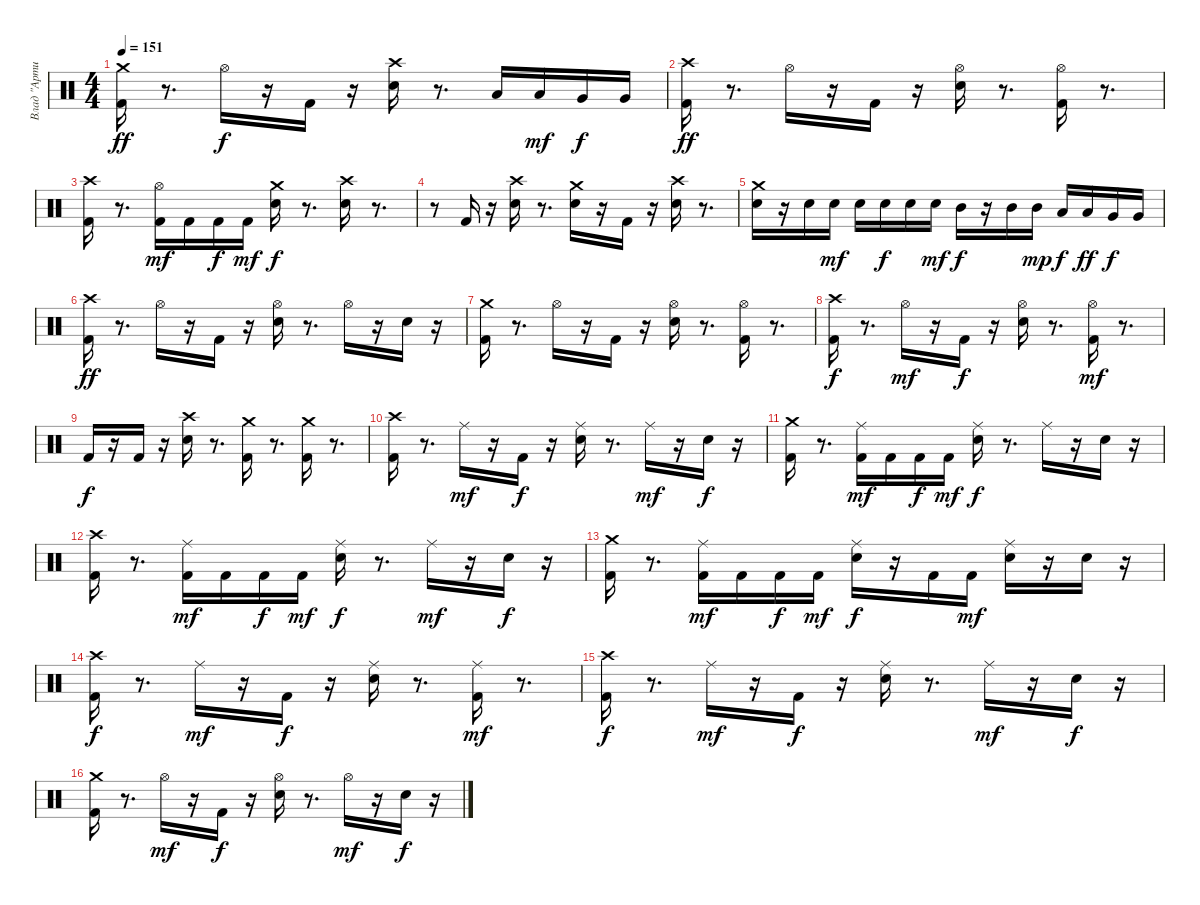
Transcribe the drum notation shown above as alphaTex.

\track ("Влад \"Артист\"" "Влад \"Арти") {instrument percussion}
\staff {score}
\articulation defaults
\ts (4 4)
\tempo 151
\clef neutral
\ks c
("Crash medium (hit)" "Kick (hit) 2").16{dy ff} r.8{d} "Hi-Hat (open)".16{dy f} r.16 "Kick (hit) 2".16 r.16 ("Crash high (hit)" "Snare (hit) 2").16 r.8{d} "Low Tom (hit)".16 "Low Tom (hit)".16{dy mf} "Very Low Tom (hit)".16{dy f} "Very Low Tom (hit)".16 |
("Kick (hit) 2" "Crash high (hit)").16{dy ff} r.8{d} "Hi-Hat (open)".16 r.16 "Kick (hit) 2".16 r.16 ("Snare (hit) 2" "Hi-Hat (open)").16 r.8{d} ("Hi-Hat (open)" "Kick (hit) 2").16 r.8{d} |
("Kick (hit) 2" "Crash high (hit)").16 r.8{d} ("Hi-Hat (open)" "Kick (hit) 2").16{dy mf} "Kick (hit) 2".16 "Kick (hit) 2".16{dy f} "Kick (hit) 2".16{dy mf} ("Crash medium (hit)" "Snare (hit) 2").16{dy f} r.8{d} ("Crash high (hit)" "Snare (hit) 2").16 r.8{d} |
r.8 "Kick (hit) 2".16 r.16 ("Crash high (hit)" "Snare (hit) 2").16 r.8{d} ("Snare (hit) 2" "Crash medium (hit)").16 r.16 "Kick (hit) 2".16 r.16 ("Snare (hit) 2" "Crash high (hit)").16 r.8{d} |
("Crash medium (hit)" "Snare (hit) 2").16 r.16 "Snare (hit) 2".16 "Snare (hit) 2".16{dy mf} "Snare (hit) 2".16 "Snare (hit) 2".16{dy f} "Snare (hit) 2".16 "Snare (hit) 2".16{dy mf} "Mid Tom (hit)".16{dy f} r.16 "Mid Tom (hit)".16 "Mid Tom (hit)".16{dy mp} "Low Tom (hit)".16{dy f} "Low Tom (hit)".16{dy ff} "Very Low Tom (hit)".16{dy f} "Very Low Tom (hit)".16 |
("Kick (hit) 2" "Crash high (hit)").16{dy ff} r.8{d} "Hi-Hat (open)".16 r.16 "Kick (hit) 2".16 r.16 ("Snare (hit) 2" "Hi-Hat (open)").16 r.8{d} "Hi-Hat (open)".16 r.16 "Snare (hit) 2".16 r.16 |
("Kick (hit) 2" "Crash medium (hit)").16 r.8{d} "Hi-Hat (open)".16 r.16 "Kick (hit) 2".16 r.16 ("Snare (hit) 2" "Hi-Hat (open)").16 r.8{d} ("Hi-Hat (open)" "Kick (hit) 2").16 r.8{d} |
("Crash high (hit)" "Kick (hit) 2").16{dy f} r.8{d} "Hi-Hat (open)".16{dy mf} r.16 "Kick (hit) 2".16{dy f} r.16 ("Hi-Hat (open)" "Snare (hit) 2").16 r.8{d} ("Hi-Hat (open)" "Kick (hit) 2").16{dy mf} r.8{d} |
"Kick (hit) 2".16{dy f} r.16 "Kick (hit) 2".16 r.16 ("Crash high (hit)" "Snare (hit) 2").16 r.8{d} ("Crash medium (hit)" "Kick (hit) 2").16 r.8{d} ("Crash medium (hit)" "Kick (hit) 2").16 r.8{d} |
("Crash high (hit)" "Kick (hit) 2").16 r.8{d} "Ride (middle)".16{dy mf} r.16 "Kick (hit) 2".16{dy f} r.16 ("Snare (hit) 2" "Ride (middle)").16 r.8{d} "Ride (middle)".16{dy mf} r.16 "Snare (hit) 2".16{dy f} r.16 |
("Kick (hit) 2" "Crash medium (hit)").16 r.8{d} ("Ride (middle)" "Kick (hit) 2").16{dy mf} "Kick (hit) 2".16 "Kick (hit) 2".16{dy f} "Kick (hit) 2".16{dy mf} ("Ride (middle)" "Snare (hit) 2").16{dy f} r.8{d} "Ride (middle)".16 r.16 "Snare (hit) 2".16 r.16 |
("Crash high (hit)" "Kick (hit) 2").16 r.8{d} ("Ride (middle)" "Kick (hit) 2").16{dy mf} "Kick (hit) 2".16 "Kick (hit) 2".16{dy f} "Kick (hit) 2".16{dy mf} ("Ride (middle)" "Snare (hit) 2").16{dy f} r.8{d} "Ride (middle)".16{dy mf} r.16 "Snare (hit) 2".16{dy f} r.16 |
("Kick (hit) 2" "Crash medium (hit)").16 r.8{d} ("Ride (middle)" "Kick (hit) 2").16{dy mf} "Kick (hit) 2".16 "Kick (hit) 2".16{dy f} "Kick (hit) 2".16{dy mf} ("Ride (middle)" "Snare (hit) 2").16{dy f} r.16 "Kick (hit) 2".16 "Kick (hit) 2".16{dy mf} ("Ride (middle)" "Snare (hit) 2").16 r.16 "Snare (hit) 2".16 r.16 |
("Kick (hit) 2" "Crash high (hit)").16{dy f} r.8{d} "Ride (middle)".16{dy mf} r.16 "Kick (hit) 2".16{dy f} r.16 ("Ride (middle)" "Snare (hit) 2").16 r.8{d} ("Ride (middle)" "Kick (hit) 2").16{dy mf} r.8{d} |
("Crash high (hit)" "Kick (hit) 2").16{dy f} r.8{d} "Ride (middle)".16{dy mf} r.16 "Kick (hit) 2".16{dy f} r.16 ("Snare (hit) 2" "Ride (middle)").16 r.8{d} "Ride (middle)".16{dy mf} r.16 "Snare (hit) 2".16{dy f} r.16 |
("Crash medium (hit)" "Kick (hit) 2").16 r.8{d} "Hi-Hat (open)".16{dy mf} r.16 "Kick (hit) 2".16{dy f} r.16 ("Hi-Hat (open)" "Snare (hit) 2").16 r.8{d} "Hi-Hat (open)".16{dy mf} r.16 "Snare (hit) 2".16{dy f} r.16
